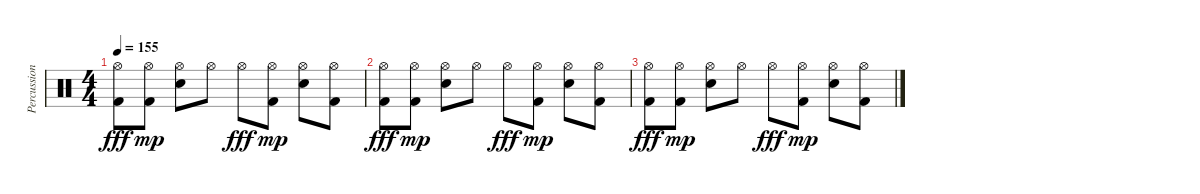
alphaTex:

\track ("Percussion" "Percussion") {instrument percussion}
\staff {score}
\articulation defaults
\ts (4 4)
\tempo 155
\clef neutral
\ks c
("Kick (hit) 2" "Hi-Hat (open)").8{dy fff} ("Kick (hit) 2" "Hi-Hat (open)").8{dy mp} ("Snare (hit) 2" "Hi-Hat (open)").8 "Hi-Hat (open)".8 "Hi-Hat (open)".8{dy fff} ("Kick (hit) 2" "Hi-Hat (open)").8{dy mp} ("Snare (hit) 2" "Hi-Hat (open)").8 ("Kick (hit) 2" "Hi-Hat (open)").8 |
("Kick (hit) 2" "Hi-Hat (open)").8{dy fff} ("Kick (hit) 2" "Hi-Hat (open)").8{dy mp} ("Snare (hit) 2" "Hi-Hat (open)").8 "Hi-Hat (open)".8 "Hi-Hat (open)".8{dy fff} ("Kick (hit) 2" "Hi-Hat (open)").8{dy mp} ("Snare (hit) 2" "Hi-Hat (open)").8 ("Kick (hit) 2" "Hi-Hat (open)").8 |
("Kick (hit) 2" "Hi-Hat (open)").8{dy fff} ("Kick (hit) 2" "Hi-Hat (open)").8{dy mp} ("Snare (hit) 2" "Hi-Hat (open)").8 "Hi-Hat (open)".8 "Hi-Hat (open)".8{dy fff} ("Kick (hit) 2" "Hi-Hat (open)").8{dy mp} ("Snare (hit) 2" "Hi-Hat (open)").8 ("Kick (hit) 2" "Hi-Hat (open)").8
